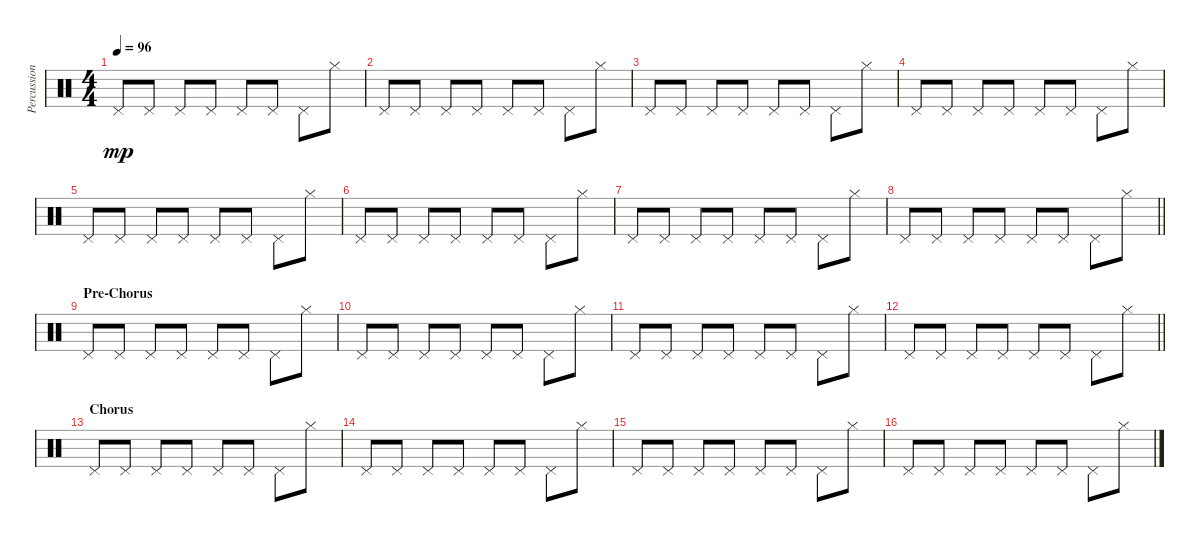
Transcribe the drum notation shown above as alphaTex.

\track ("Percussion" "Percussion") {instrument percussion}
\staff {score}
\articulation defaults
\ts (4 4)
\tempo 96
\clef neutral
\ks c "Pedal Hi-Hat (hit)".8{dy mp} "Pedal Hi-Hat (hit)".8 "Pedal Hi-Hat (hit)".8 "Pedal Hi-Hat (hit)".8 "Pedal Hi-Hat (hit)".8 "Pedal Hi-Hat (hit)".8 "Pedal Hi-Hat (hit)".8 "Hi-Hat (closed)".8
|
"Pedal Hi-Hat (hit)".8 "Pedal Hi-Hat (hit)".8 "Pedal Hi-Hat (hit)".8 "Pedal Hi-Hat (hit)".8 "Pedal Hi-Hat (hit)".8 "Pedal Hi-Hat (hit)".8 "Pedal Hi-Hat (hit)".8 "Hi-Hat (closed)".8 |
"Pedal Hi-Hat (hit)".8 "Pedal Hi-Hat (hit)".8 "Pedal Hi-Hat (hit)".8 "Pedal Hi-Hat (hit)".8 "Pedal Hi-Hat (hit)".8 "Pedal Hi-Hat (hit)".8 "Pedal Hi-Hat (hit)".8 "Hi-Hat (closed)".8 |
"Pedal Hi-Hat (hit)".8 "Pedal Hi-Hat (hit)".8 "Pedal Hi-Hat (hit)".8 "Pedal Hi-Hat (hit)".8 "Pedal Hi-Hat (hit)".8 "Pedal Hi-Hat (hit)".8 "Pedal Hi-Hat (hit)".8 "Hi-Hat (closed)".8 |
"Pedal Hi-Hat (hit)".8 "Pedal Hi-Hat (hit)".8 "Pedal Hi-Hat (hit)".8 "Pedal Hi-Hat (hit)".8 "Pedal Hi-Hat (hit)".8 "Pedal Hi-Hat (hit)".8 "Pedal Hi-Hat (hit)".8 "Hi-Hat (closed)".8 |
"Pedal Hi-Hat (hit)".8 "Pedal Hi-Hat (hit)".8 "Pedal Hi-Hat (hit)".8 "Pedal Hi-Hat (hit)".8 "Pedal Hi-Hat (hit)".8 "Pedal Hi-Hat (hit)".8 "Pedal Hi-Hat (hit)".8 "Hi-Hat (closed)".8 |
"Pedal Hi-Hat (hit)".8 "Pedal Hi-Hat (hit)".8 "Pedal Hi-Hat (hit)".8 "Pedal Hi-Hat (hit)".8 "Pedal Hi-Hat (hit)".8 "Pedal Hi-Hat (hit)".8 "Pedal Hi-Hat (hit)".8 "Hi-Hat (closed)".8 |
\barLineRight lightlight "Pedal Hi-Hat (hit)".8 "Pedal Hi-Hat (hit)".8 "Pedal Hi-Hat (hit)".8 "Pedal Hi-Hat (hit)".8 "Pedal Hi-Hat (hit)".8 "Pedal Hi-Hat (hit)".8 "Pedal Hi-Hat (hit)".8 "Hi-Hat (closed)".8
|
\section ("" "Pre-Chorus")
"Pedal Hi-Hat (hit)".8 "Pedal Hi-Hat (hit)".8 "Pedal Hi-Hat (hit)".8 "Pedal Hi-Hat (hit)".8 "Pedal Hi-Hat (hit)".8 "Pedal Hi-Hat (hit)".8 "Pedal Hi-Hat (hit)".8 "Hi-Hat (closed)".8 |
"Pedal Hi-Hat (hit)".8 "Pedal Hi-Hat (hit)".8 "Pedal Hi-Hat (hit)".8 "Pedal Hi-Hat (hit)".8 "Pedal Hi-Hat (hit)".8 "Pedal Hi-Hat (hit)".8 "Pedal Hi-Hat (hit)".8 "Hi-Hat (closed)".8 |
"Pedal Hi-Hat (hit)".8 "Pedal Hi-Hat (hit)".8 "Pedal Hi-Hat (hit)".8 "Pedal Hi-Hat (hit)".8 "Pedal Hi-Hat (hit)".8 "Pedal Hi-Hat (hit)".8 "Pedal Hi-Hat (hit)".8 "Hi-Hat (closed)".8 |
\barLineRight lightlight "Pedal Hi-Hat (hit)".8 "Pedal Hi-Hat (hit)".8 "Pedal Hi-Hat (hit)".8 "Pedal Hi-Hat (hit)".8 "Pedal Hi-Hat (hit)".8 "Pedal Hi-Hat (hit)".8 "Pedal Hi-Hat (hit)".8 "Hi-Hat (closed)".8
|
\section ("" "Chorus")
"Pedal Hi-Hat (hit)".8 "Pedal Hi-Hat (hit)".8 "Pedal Hi-Hat (hit)".8 "Pedal Hi-Hat (hit)".8 "Pedal Hi-Hat (hit)".8 "Pedal Hi-Hat (hit)".8 "Pedal Hi-Hat (hit)".8 "Hi-Hat (closed)".8 |
"Pedal Hi-Hat (hit)".8 "Pedal Hi-Hat (hit)".8 "Pedal Hi-Hat (hit)".8 "Pedal Hi-Hat (hit)".8 "Pedal Hi-Hat (hit)".8 "Pedal Hi-Hat (hit)".8 "Pedal Hi-Hat (hit)".8 "Hi-Hat (closed)".8 |
"Pedal Hi-Hat (hit)".8 "Pedal Hi-Hat (hit)".8 "Pedal Hi-Hat (hit)".8 "Pedal Hi-Hat (hit)".8 "Pedal Hi-Hat (hit)".8 "Pedal Hi-Hat (hit)".8 "Pedal Hi-Hat (hit)".8 "Hi-Hat (closed)".8 |
"Pedal Hi-Hat (hit)".8 "Pedal Hi-Hat (hit)".8 "Pedal Hi-Hat (hit)".8 "Pedal Hi-Hat (hit)".8 "Pedal Hi-Hat (hit)".8 "Pedal Hi-Hat (hit)".8 "Pedal Hi-Hat (hit)".8 "Hi-Hat (closed)".8
